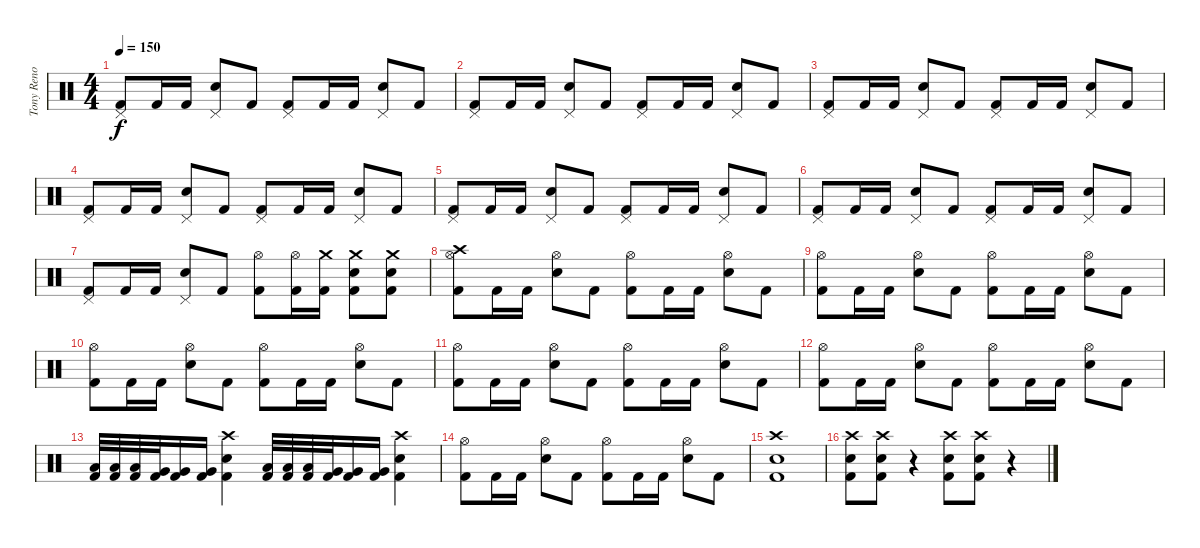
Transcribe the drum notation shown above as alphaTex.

\track ("Tony Reno" "Tony Reno") {instrument percussion}
\staff {score}
\articulation defaults
\ts (4 4)
\tempo 150
\clef neutral
\ks c
("Kick (hit) 2" "Pedal Hi-Hat (hit)").8{dy f} "Kick (hit) 2".16 "Kick (hit) 2".16 ("Snare (hit) 2" "Pedal Hi-Hat (hit)").8 "Kick (hit) 2".8 ("Kick (hit) 2" "Pedal Hi-Hat (hit)").8 "Kick (hit) 2".16 "Kick (hit) 2".16 ("Snare (hit) 2" "Pedal Hi-Hat (hit)").8 "Kick (hit) 2".8 |
("Kick (hit) 2" "Pedal Hi-Hat (hit)").8 "Kick (hit) 2".16 "Kick (hit) 2".16 ("Snare (hit) 2" "Pedal Hi-Hat (hit)").8 "Kick (hit) 2".8 ("Kick (hit) 2" "Pedal Hi-Hat (hit)").8 "Kick (hit) 2".16 "Kick (hit) 2".16 ("Snare (hit) 2" "Pedal Hi-Hat (hit)").8 "Kick (hit) 2".8 |
("Kick (hit) 2" "Pedal Hi-Hat (hit)").8 "Kick (hit) 2".16 "Kick (hit) 2".16 ("Snare (hit) 2" "Pedal Hi-Hat (hit)").8 "Kick (hit) 2".8 ("Kick (hit) 2" "Pedal Hi-Hat (hit)").8 "Kick (hit) 2".16 "Kick (hit) 2".16 ("Snare (hit) 2" "Pedal Hi-Hat (hit)").8 "Kick (hit) 2".8 |
("Kick (hit) 2" "Pedal Hi-Hat (hit)").8 "Kick (hit) 2".16 "Kick (hit) 2".16 ("Snare (hit) 2" "Pedal Hi-Hat (hit)").8 "Kick (hit) 2".8 ("Kick (hit) 2" "Pedal Hi-Hat (hit)").8 "Kick (hit) 2".16 "Kick (hit) 2".16 ("Snare (hit) 2" "Pedal Hi-Hat (hit)").8 "Kick (hit) 2".8 |
("Kick (hit) 2" "Pedal Hi-Hat (hit)").8 "Kick (hit) 2".16 "Kick (hit) 2".16 ("Snare (hit) 2" "Pedal Hi-Hat (hit)").8 "Kick (hit) 2".8 ("Kick (hit) 2" "Pedal Hi-Hat (hit)").8 "Kick (hit) 2".16 "Kick (hit) 2".16 ("Snare (hit) 2" "Pedal Hi-Hat (hit)").8 "Kick (hit) 2".8 |
("Kick (hit) 2" "Pedal Hi-Hat (hit)").8 "Kick (hit) 2".16 "Kick (hit) 2".16 ("Snare (hit) 2" "Pedal Hi-Hat (hit)").8 "Kick (hit) 2".8 ("Kick (hit) 2" "Pedal Hi-Hat (hit)").8 "Kick (hit) 2".16 "Kick (hit) 2".16 ("Snare (hit) 2" "Pedal Hi-Hat (hit)").8 "Kick (hit) 2".8 |
("Kick (hit) 2" "Pedal Hi-Hat (hit)").8 "Kick (hit) 2".16 "Kick (hit) 2".16 ("Snare (hit) 2" "Pedal Hi-Hat (hit)").8 "Kick (hit) 2".8 ("Kick (hit) 2" "Hi-Hat (open)").8 ("Kick (hit) 2" "Hi-Hat (open)").16 ("Kick (hit) 2" "Crash medium (hit)").16 ("Kick (hit) 2" "Snare (hit) 2" "Crash medium (hit)").8 ("Kick (hit) 2" "Snare (hit) 2" "Crash medium (hit)").8 |
("Kick (hit) 2" "Hi-Hat (open)" "Crash high (hit)").8 "Kick (hit) 2".16 "Kick (hit) 2".16 ("Snare (hit) 2" "Hi-Hat (open)").8 "Kick (hit) 2".8 ("Kick (hit) 2" "Hi-Hat (open)").8 "Kick (hit) 2".16 "Kick (hit) 2".16 ("Snare (hit) 2" "Hi-Hat (open)").8 "Kick (hit) 2".8 |
("Kick (hit) 2" "Hi-Hat (open)").8 "Kick (hit) 2".16 "Kick (hit) 2".16 ("Snare (hit) 2" "Hi-Hat (open)").8 "Kick (hit) 2".8 ("Kick (hit) 2" "Hi-Hat (open)").8 "Kick (hit) 2".16 "Kick (hit) 2".16 ("Snare (hit) 2" "Hi-Hat (open)").8 "Kick (hit) 2".8 |
("Kick (hit) 2" "Hi-Hat (open)").8 "Kick (hit) 2".16 "Kick (hit) 2".16 ("Snare (hit) 2" "Hi-Hat (open)").8 "Kick (hit) 2".8 ("Kick (hit) 2" "Hi-Hat (open)").8 "Kick (hit) 2".16 "Kick (hit) 2".16 ("Snare (hit) 2" "Hi-Hat (open)").8 "Kick (hit) 2".8 |
("Kick (hit) 2" "Hi-Hat (open)").8 "Kick (hit) 2".16 "Kick (hit) 2".16 ("Snare (hit) 2" "Hi-Hat (open)").8 "Kick (hit) 2".8 ("Kick (hit) 2" "Hi-Hat (open)").8 "Kick (hit) 2".16 "Kick (hit) 2".16 ("Snare (hit) 2" "Hi-Hat (open)").8 "Kick (hit) 2".8 |
("Kick (hit) 2" "Hi-Hat (open)").8 "Kick (hit) 2".16 "Kick (hit) 2".16 ("Snare (hit) 2" "Hi-Hat (open)").8 "Kick (hit) 2".8 ("Kick (hit) 2" "Hi-Hat (open)").8 "Kick (hit) 2".16 "Kick (hit) 2".16 ("Snare (hit) 2" "Hi-Hat (open)").8 "Kick (hit) 2".8 |
("Kick (hit) 2" "Low Tom (hit)").32 ("Kick (hit) 2" "Low Tom (hit)").32 ("Kick (hit) 2" "Low Tom (hit)").32 ("Kick (hit) 2" "Very Low Tom (hit)").32 ("Kick (hit) 2" "Very Low Tom (hit)").16 ("Kick (hit) 2" "Very Low Tom (hit)").16 ("Snare (hit) 2" "Crash high (hit)" "Kick (hit) 2").4 ("Kick (hit) 2" "Low Tom (hit)").32 ("Kick (hit) 2" "Low Tom (hit)").32 ("Kick (hit) 2" "Low Tom (hit)").32 ("Kick (hit) 2" "Very Low Tom (hit)").32 ("Kick (hit) 2" "Very Low Tom (hit)").16 ("Kick (hit) 2" "Very Low Tom (hit)").16 ("Snare (hit) 2" "Crash high (hit)" "Kick (hit) 2").4 |
("Kick (hit) 2" "Hi-Hat (open)").8 "Kick (hit) 2".16 "Kick (hit) 2".16 ("Snare (hit) 2" "Hi-Hat (open)").8 "Kick (hit) 2".8 ("Kick (hit) 2" "Hi-Hat (open)").8 "Kick (hit) 2".16 "Kick (hit) 2".16 ("Snare (hit) 2" "Hi-Hat (open)").8 "Kick (hit) 2".8 |
("Kick (hit) 2" "Snare (hit) 2" "Crash high (hit)").1 |
("Kick (hit) 2" "Snare (hit) 2" "Crash high (hit)").8 ("Kick (hit) 2" "Snare (hit) 2" "Crash high (hit)").8 r.4 ("Kick (hit) 2" "Snare (hit) 2" "Crash high (hit)").8 ("Kick (hit) 2" "Snare (hit) 2" "Crash high (hit)").8 r.4
